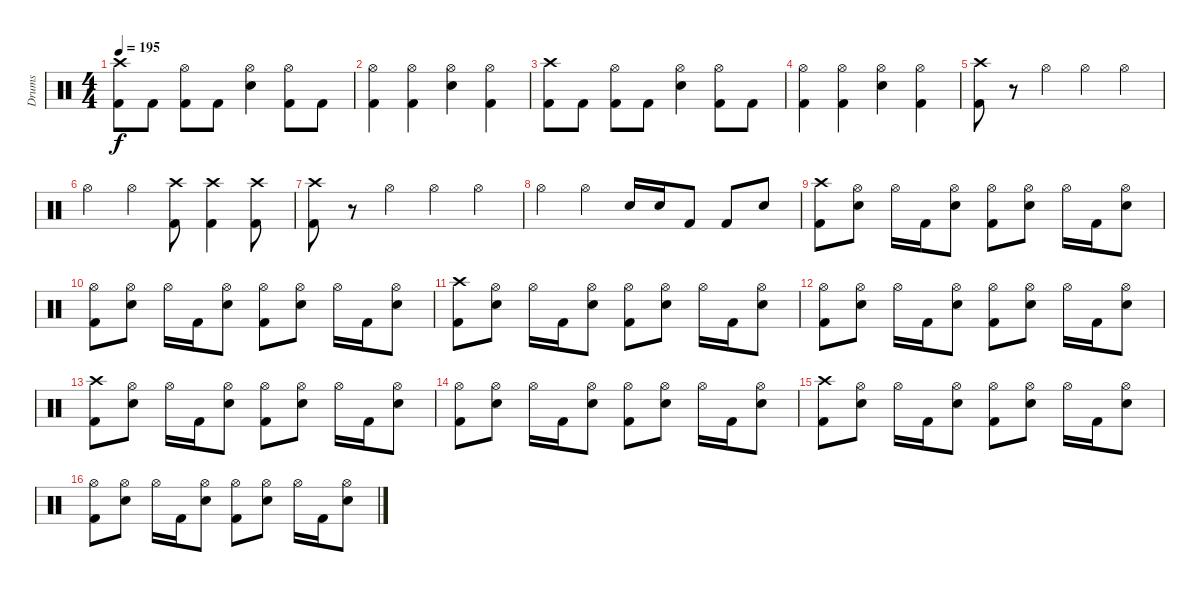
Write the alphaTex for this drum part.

\track ("Drums" "Drums") {instrument percussion}
\staff {score}
\articulation defaults
\ts (4 4)
\tempo 195
\clef neutral
\ks c
("Crash high (hit)" "Kick (hit) 2").8{dy f} "Kick (hit) 2".8 ("Hi-Hat (open)" "Kick (hit) 2").8 "Kick (hit) 2".8 ("Hi-Hat (open)" "Snare (hit) 2").4 ("Hi-Hat (open)" "Kick (hit) 2").8 "Kick (hit) 2".8 |
("Hi-Hat (open)" "Kick (hit) 2").4 ("Hi-Hat (open)" "Kick (hit) 2").4 ("Hi-Hat (open)" "Snare (hit) 2").4 ("Hi-Hat (open)" "Kick (hit) 2").4 |
("Crash high (hit)" "Kick (hit) 2").8 "Kick (hit) 2".8 ("Hi-Hat (open)" "Kick (hit) 2").8 "Kick (hit) 2".8 ("Hi-Hat (open)" "Snare (hit) 2").4 ("Hi-Hat (open)" "Kick (hit) 2").8 "Kick (hit) 2".8 |
("Hi-Hat (open)" "Kick (hit) 2").4 ("Hi-Hat (open)" "Kick (hit) 2").4 ("Hi-Hat (open)" "Snare (hit) 2").4 ("Hi-Hat (open)" "Kick (hit) 2").4 |
("Crash high (hit)" "Kick (hit) 2").8 r.8 "Hi-Hat (open)".4 "Hi-Hat (open)".4 "Hi-Hat (open)".4 |
"Hi-Hat (open)".4 "Hi-Hat (open)".4 ("Crash high (hit)" "Kick (hit) 2").8 ("Crash high (hit)" "Kick (hit) 2").4 ("Crash high (hit)" "Kick (hit) 2").8 |
("Crash high (hit)" "Kick (hit) 2").8 r.8 "Hi-Hat (open)".4 "Hi-Hat (open)".4 "Hi-Hat (open)".4 |
"Hi-Hat (open)".4 "Hi-Hat (open)".4 "Snare (hit) 2".16 "Snare (hit) 2".16 "Kick (hit) 2".8 "Kick (hit) 2".8 "Snare (hit) 2".8 |
("Crash high (hit)" "Kick (hit) 2").8 ("Hi-Hat (open)" "Snare (hit) 2").8 "Hi-Hat (open)".16 "Kick (hit) 2".16 ("Hi-Hat (open)" "Snare (hit) 2").8 ("Hi-Hat (open)" "Kick (hit) 2").8 ("Hi-Hat (open)" "Snare (hit) 2").8 "Hi-Hat (open)".16 "Kick (hit) 2".16 ("Hi-Hat (open)" "Snare (hit) 2").8 |
("Hi-Hat (open)" "Kick (hit) 2").8 ("Hi-Hat (open)" "Snare (hit) 2").8 "Hi-Hat (open)".16 "Kick (hit) 2".16 ("Hi-Hat (open)" "Snare (hit) 2").8 ("Hi-Hat (open)" "Kick (hit) 2").8 ("Hi-Hat (open)" "Snare (hit) 2").8 "Hi-Hat (open)".16 "Kick (hit) 2".16 ("Hi-Hat (open)" "Snare (hit) 2").8 |
("Crash high (hit)" "Kick (hit) 2").8 ("Hi-Hat (open)" "Snare (hit) 2").8 "Hi-Hat (open)".16 "Kick (hit) 2".16 ("Hi-Hat (open)" "Snare (hit) 2").8 ("Hi-Hat (open)" "Kick (hit) 2").8 ("Hi-Hat (open)" "Snare (hit) 2").8 "Hi-Hat (open)".16 "Kick (hit) 2".16 ("Hi-Hat (open)" "Snare (hit) 2").8 |
("Hi-Hat (open)" "Kick (hit) 2").8 ("Hi-Hat (open)" "Snare (hit) 2").8 "Hi-Hat (open)".16 "Kick (hit) 2".16 ("Hi-Hat (open)" "Snare (hit) 2").8 ("Hi-Hat (open)" "Kick (hit) 2").8 ("Hi-Hat (open)" "Snare (hit) 2").8 "Hi-Hat (open)".16 "Kick (hit) 2".16 ("Hi-Hat (open)" "Snare (hit) 2").8 |
("Crash high (hit)" "Kick (hit) 2").8 ("Hi-Hat (open)" "Snare (hit) 2").8 "Hi-Hat (open)".16 "Kick (hit) 2".16 ("Hi-Hat (open)" "Snare (hit) 2").8 ("Hi-Hat (open)" "Kick (hit) 2").8 ("Hi-Hat (open)" "Snare (hit) 2").8 "Hi-Hat (open)".16 "Kick (hit) 2".16 ("Hi-Hat (open)" "Snare (hit) 2").8 |
("Hi-Hat (open)" "Kick (hit) 2").8 ("Hi-Hat (open)" "Snare (hit) 2").8 "Hi-Hat (open)".16 "Kick (hit) 2".16 ("Hi-Hat (open)" "Snare (hit) 2").8 ("Hi-Hat (open)" "Kick (hit) 2").8 ("Hi-Hat (open)" "Snare (hit) 2").8 "Hi-Hat (open)".16 "Kick (hit) 2".16 ("Hi-Hat (open)" "Snare (hit) 2").8 |
("Crash high (hit)" "Kick (hit) 2").8 ("Hi-Hat (open)" "Snare (hit) 2").8 "Hi-Hat (open)".16 "Kick (hit) 2".16 ("Hi-Hat (open)" "Snare (hit) 2").8 ("Hi-Hat (open)" "Kick (hit) 2").8 ("Hi-Hat (open)" "Snare (hit) 2").8 "Hi-Hat (open)".16 "Kick (hit) 2".16 ("Hi-Hat (open)" "Snare (hit) 2").8 |
("Hi-Hat (open)" "Kick (hit) 2").8 ("Hi-Hat (open)" "Snare (hit) 2").8 "Hi-Hat (open)".16 "Kick (hit) 2".16 ("Hi-Hat (open)" "Snare (hit) 2").8 ("Hi-Hat (open)" "Kick (hit) 2").8 ("Hi-Hat (open)" "Snare (hit) 2").8 "Hi-Hat (open)".16 "Kick (hit) 2".16 ("Hi-Hat (open)" "Snare (hit) 2").8
